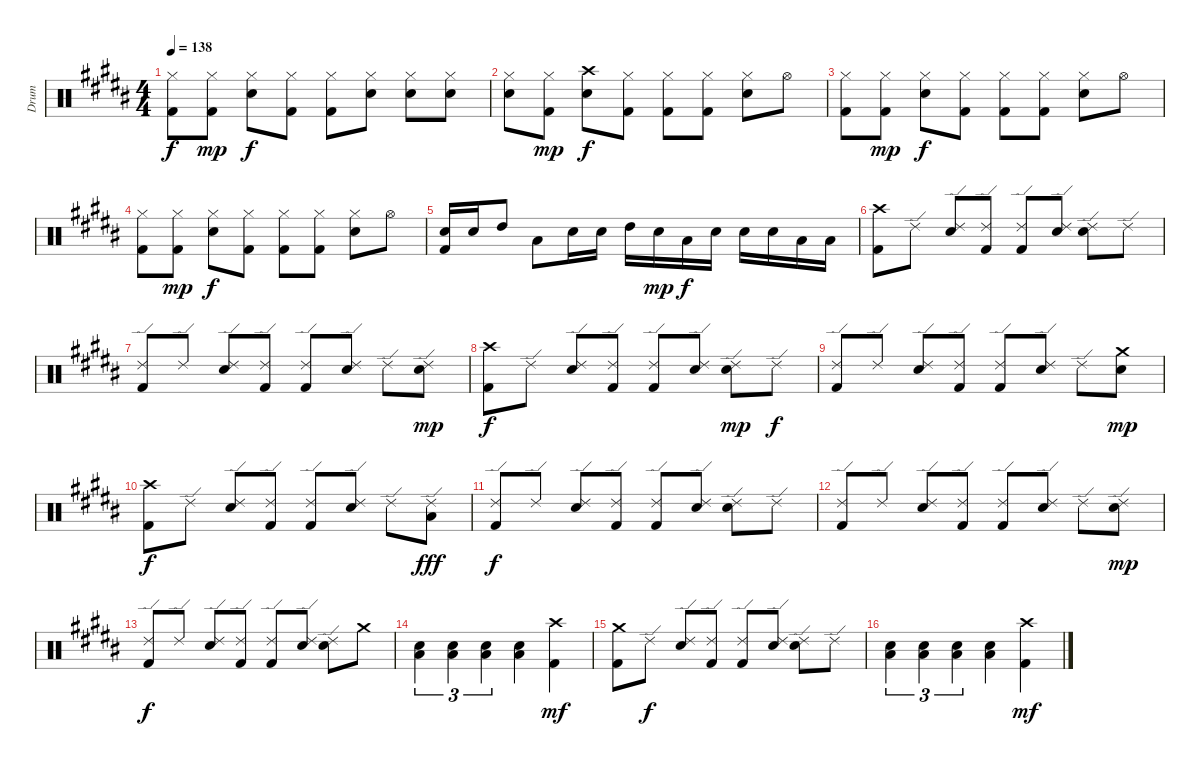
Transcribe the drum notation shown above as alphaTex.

\track ("Drum" "Drum") {instrument percussion}
\staff {score}
\articulation defaults
\ts (4 4)
\tempo 138
\clef neutral
\ks g#minor
("Hi-Hat (closed)" "Kick (hit) 2").8{dy f} ("Hi-Hat (closed)" "Kick (hit) 2").8{dy mp} ("Hi-Hat (closed)" "Electric Snare (hit)").8{dy f} ("Hi-Hat (closed)" "Kick (hit) 2").8 ("Hi-Hat (closed)" "Kick (hit) 2").8 ("Hi-Hat (closed)" "Electric Snare (hit)").8 ("Hi-Hat (closed)" "Electric Snare (hit)").8 ("Hi-Hat (closed)" "Electric Snare (hit)").8 |
\ks b
("Hi-Hat (closed)" "Electric Snare (hit)").8 ("Hi-Hat (closed)" "Kick (hit) 2").8{dy mp} ("Crash high (hit)" "Electric Snare (hit)").8{dy f} ("Hi-Hat (closed)" "Kick (hit) 2").8 ("Hi-Hat (closed)" "Kick (hit) 2").8 ("Hi-Hat (closed)" "Kick (hit) 2").8 ("Hi-Hat (closed)" "Electric Snare (hit)").8 "Hi-Hat (open)".8 |
\ks g#minor
("Hi-Hat (closed)" "Kick (hit) 2").8 ("Hi-Hat (closed)" "Kick (hit) 2").8{dy mp} ("Hi-Hat (closed)" "Electric Snare (hit)").8{dy f} ("Hi-Hat (closed)" "Kick (hit) 2").8 ("Hi-Hat (closed)" "Kick (hit) 2").8 ("Hi-Hat (closed)" "Kick (hit) 2").8 ("Hi-Hat (closed)" "Electric Snare (hit)").8 "Hi-Hat (open)".8 |
\ks b
("Hi-Hat (closed)" "Kick (hit) 2").8 ("Hi-Hat (closed)" "Kick (hit) 2").8{dy mp} ("Hi-Hat (closed)" "Electric Snare (hit)").8{dy f} ("Hi-Hat (closed)" "Kick (hit) 2").8 ("Hi-Hat (closed)" "Kick (hit) 2").8 ("Hi-Hat (closed)" "Kick (hit) 2").8 ("Hi-Hat (closed)" "Electric Snare (hit)").8 "Hi-Hat (open)".8 |
\ks g#minor
("Electric Snare (hit)" "Kick (hit) 2").16 "Electric Snare (hit)".16 "High Tom (hit)".8 "Low Floor Tom (hit)".8 "Electric Snare (hit)".16 "Electric Snare (hit)".16 "High Tom (hit)".16 "Electric Snare (hit)".16{dy mp} "Low Floor Tom (hit)".16{dy f} "Electric Snare (hit)".16 "Electric Snare (hit)".16 "Electric Snare (hit)".16 "Low Floor Tom (hit)".16 "Low Floor Tom (hit)".16 |
\ks b
("Crash high (hit)" "Kick (hit) 2").8 "Ride (edge) 2".8 ("Ride (edge) 2" "Electric Snare (hit)").8 ("Ride (edge) 2" "Kick (hit) 2").8 ("Ride (edge) 2" "Kick (hit) 2").8 ("Ride (edge) 2" "Electric Snare (hit)").8 ("Ride (edge) 2" "Electric Snare (hit)").8 "Ride (edge) 2".8 |
\ks g#minor
("Ride (edge) 2" "Kick (hit) 2").8 "Ride (edge) 2".8 ("Ride (edge) 2" "Electric Snare (hit)").8 ("Ride (edge) 2" "Kick (hit) 2").8 ("Ride (edge) 2" "Kick (hit) 2").8 ("Ride (edge) 2" "Electric Snare (hit)").8 "Ride (edge) 2".8 ("Ride (edge) 2" "Electric Snare (hit)").8{dy mp} |
("Crash high (hit)" "Kick (hit) 2").8{dy f} "Ride (edge) 2".8 ("Ride (edge) 2" "Electric Snare (hit)").8 ("Ride (edge) 2" "Kick (hit) 2").8 ("Ride (edge) 2" "Kick (hit) 2").8 ("Ride (edge) 2" "Electric Snare (hit)").8 ("Ride (edge) 2" "Electric Snare (hit)").8{dy mp} "Ride (edge) 2".8{dy f} |
("Ride (edge) 2" "Kick (hit) 2").8 "Ride (edge) 2".8 ("Ride (edge) 2" "Electric Snare (hit)").8 ("Ride (edge) 2" "Kick (hit) 2").8 ("Ride (edge) 2" "Kick (hit) 2").8 ("Ride (edge) 2" "Electric Snare (hit)").8 "Ride (edge) 2".8 ("Crash medium (hit)" "Electric Snare (hit)").8{dy mp} |
\ks b
("Crash high (hit)" "Kick (hit) 2").8{dy f} "Ride (edge) 2".8 ("Ride (edge) 2" "Electric Snare (hit)").8 ("Ride (edge) 2" "Kick (hit) 2").8 ("Ride (edge) 2" "Kick (hit) 2").8 ("Ride (edge) 2" "Electric Snare (hit)").8 "Ride (edge) 2".8 ("Ride (edge) 2" "Low Floor Tom (hit)").8{dy fff} |
\ks g#minor
("Ride (edge) 2" "Kick (hit) 2").8{dy f} "Ride (edge) 2".8 ("Ride (edge) 2" "Electric Snare (hit)").8 ("Ride (edge) 2" "Kick (hit) 2").8 ("Ride (edge) 2" "Kick (hit) 2").8 ("Ride (edge) 2" "Electric Snare (hit)").8 ("Ride (edge) 2" "Electric Snare (hit)").8 "Ride (edge) 2".8 |
("Ride (edge) 2" "Kick (hit) 2").8 "Ride (edge) 2".8 ("Ride (edge) 2" "Electric Snare (hit)").8 ("Ride (edge) 2" "Kick (hit) 2").8 ("Ride (edge) 2" "Kick (hit) 2").8 ("Ride (edge) 2" "Electric Snare (hit)").8 "Ride (edge) 2".8 ("Ride (edge) 2" "Electric Snare (hit)").8{dy mp} |
("Ride (edge) 2" "Kick (hit) 2").8{dy f} "Ride (edge) 2".8 ("Ride (edge) 2" "Electric Snare (hit)").8 ("Ride (edge) 2" "Kick (hit) 2").8 ("Ride (edge) 2" "Kick (hit) 2").8 ("Ride (edge) 2" "Electric Snare (hit)").8 ("Ride (edge) 2" "Electric Snare (hit)").8 "Crash medium (hit)".8 |
\ks b
("Electric Snare (hit)" "Low Floor Tom (hit)").4{tu (3 2)} ("Electric Snare (hit)" "Low Floor Tom (hit)").4{tu (3 2)} ("Electric Snare (hit)" "Low Floor Tom (hit)").4{tu (3 2)} ("Electric Snare (hit)" "Low Floor Tom (hit)").4 ("Crash high (hit)" "Kick (hit) 2").4{dy mf} |
\ks g#minor
("Crash medium (hit)" "Kick (hit) 2").8 "Ride (edge) 2".8{dy f} ("Ride (edge) 2" "Electric Snare (hit)").8 ("Ride (edge) 2" "Kick (hit) 2").8 ("Ride (edge) 2" "Kick (hit) 2").8 ("Ride (edge) 2" "Electric Snare (hit)").8 ("Ride (edge) 2" "Electric Snare (hit)").8 "Ride (edge) 2".8 |
("Electric Snare (hit)" "Low Floor Tom (hit)").4{tu (3 2)} ("Electric Snare (hit)" "Low Floor Tom (hit)").4{tu (3 2)} ("Electric Snare (hit)" "Low Floor Tom (hit)").4{tu (3 2)} ("Electric Snare (hit)" "Low Floor Tom (hit)").4 ("Crash high (hit)" "Kick (hit) 2").4{dy mf}
